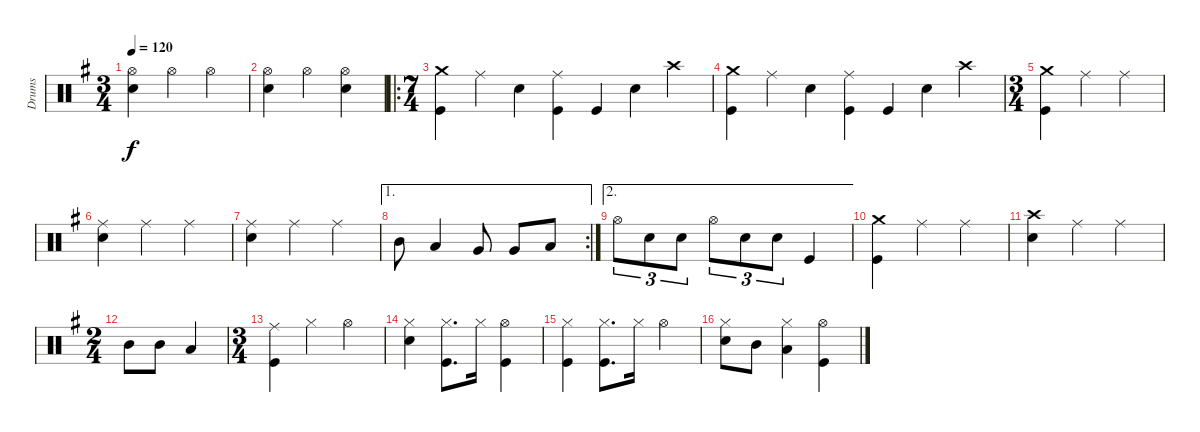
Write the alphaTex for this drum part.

\track ("Drums" "Drums") {instrument percussion}
\staff {score}
\articulation defaults
\ts (3 4)
\tempo 120
\clef neutral
\ks g
("Hi-Hat (open)" "Snare (hit) 2").4{dy f} "Hi-Hat (open)".4 "Hi-Hat (open)".4 |
("Hi-Hat (open)" "Snare (hit) 2").4 "Hi-Hat (open)".4 ("Hi-Hat (open)" "Snare (hit) 2").4 |
\ro
\ts (7 4)
("Crash medium (hit)" "Kick (hit)").4 "Ride (middle)".4 "Snare (hit) 2".4 ("Ride (middle)" "Kick (hit)").4 "Kick (hit)".4 "Snare (hit) 2".4 "Crash high (hit)".4 |
("Crash medium (hit)" "Kick (hit)").4 "Ride (middle)".4 "Snare (hit) 2".4 ("Ride (middle)" "Kick (hit)").4 "Kick (hit)".4 "Snare (hit) 2".4 "Crash high (hit)".4 |
\ts (3 4)
("Crash medium (hit)" "Kick (hit)").4 "Ride (middle)".4 "Ride (middle)".4 |
("Ride (middle)" "Snare (hit) 2").4 "Ride (middle)".4 "Ride (middle)".4 |
("Ride (middle)" "Snare (hit) 2").4 "Ride (middle)".4 "Ride (middle)".4 |
\ae 1
\rc 2 "Mid Tom (hit)".8 "Low Tom (hit)".4 "Very Low Tom (hit)".8 "Very Low Tom (hit)".8 "Low Floor Tom (hit)".8
|
\ae 2 "Hi-Hat (open)".8{tu (3 2)} "Snare (hit) 2".8{tu (3 2)} "Snare (hit) 2".8{tu (3 2)} "Hi-Hat (open)".8{tu (3 2)} "Snare (hit) 2".8{tu (3 2)} "Snare (hit) 2".8{tu (3 2)} "Kick (hit)".4
|
("Crash medium (hit)" "Kick (hit)").4 "Ride (middle)".4 "Ride (middle)".4 |
("Crash high (hit)" "Snare (hit) 2").4 "Ride (middle)".4 "Ride (middle)".4 |
\ts (2 4)
"Mid Tom (hit)".8 "Mid Tom (hit)".8 "Low Tom (hit)".4 |
\ts (3 4)
("Ride (middle)" "Kick (hit)").4 "Hi-Hat (closed)".4 "Hi-Hat (open)".4 |
("Hi-Hat (closed)" "Snare (hit) 2").4 ("Hi-Hat (closed)" "Kick (hit)").8{d} "Hi-Hat (closed)".16 ("Hi-Hat (open)" "Kick (hit)").4 |
("Hi-Hat (closed)" "Kick (hit)").4 ("Hi-Hat (closed)" "Kick (hit)").8{d} "Hi-Hat (closed)".16 "Hi-Hat (open)".4 |
("Hi-Hat (closed)" "Snare (hit) 2").8 "Mid Tom (hit)".8 ("Hi-Hat (closed)" "Low Tom (hit)").4 ("Hi-Hat (open)" "Kick (hit)").4
